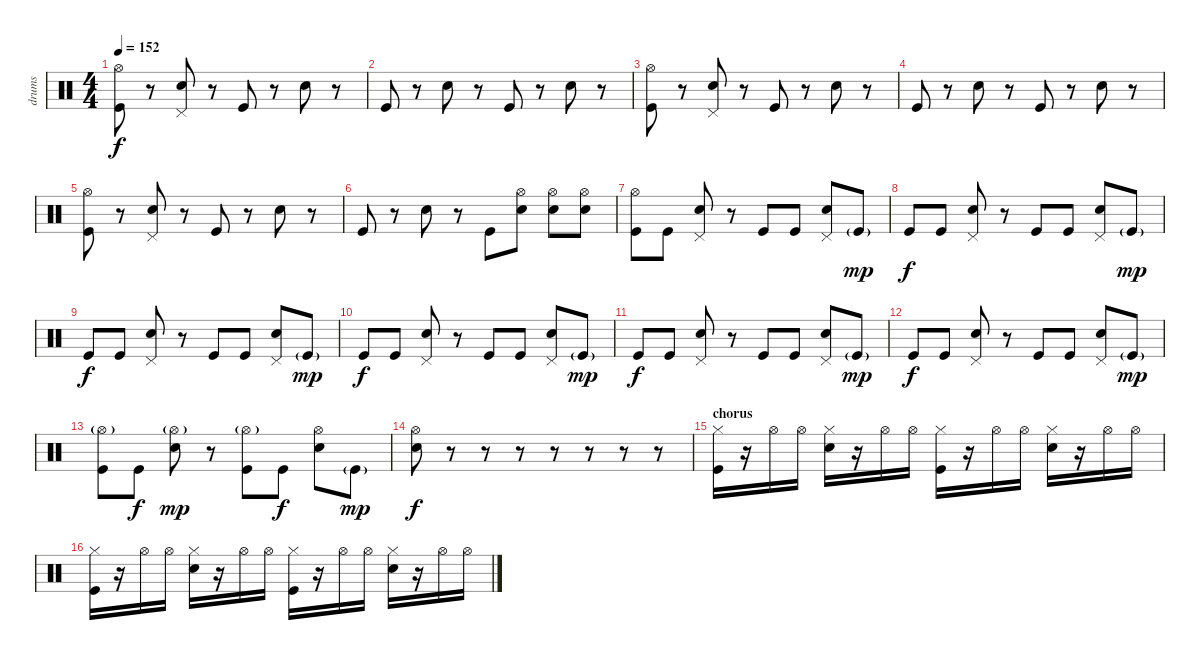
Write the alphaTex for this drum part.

\track ("drums" "drums") {instrument percussion}
\staff {score}
\articulation defaults
\ts (4 4)
\tempo 152
\clef neutral
\ks c
("Hi-Hat (open)" "Kick (hit)").8{dy f} r.8 ("Pedal Hi-Hat (hit)" "Snare (hit) 2").8 r.8 "Kick (hit)".8 r.8 "Snare (hit) 2".8 r.8 |
"Kick (hit)".8 r.8 "Snare (hit) 2".8 r.8 "Kick (hit)".8 r.8 "Snare (hit) 2".8 r.8 |
("Hi-Hat (open)" "Kick (hit)").8 r.8 ("Pedal Hi-Hat (hit)" "Snare (hit) 2").8 r.8 "Kick (hit)".8 r.8 "Snare (hit) 2".8 r.8 |
"Kick (hit)".8 r.8 "Snare (hit) 2".8 r.8 "Kick (hit)".8 r.8 "Snare (hit) 2".8 r.8 |
("Hi-Hat (open)" "Kick (hit)").8 r.8 ("Pedal Hi-Hat (hit)" "Snare (hit) 2").8 r.8 "Kick (hit)".8 r.8 "Snare (hit) 2".8 r.8 |
"Kick (hit)".8 r.8 "Snare (hit) 2".8 r.8 "Kick (hit)".8 ("Hi-Hat (open)" "Snare (hit) 2").8 ("Hi-Hat (open)" "Snare (hit) 2").8 ("Hi-Hat (open)" "Snare (hit) 2").8 |
("Hi-Hat (open)" "Kick (hit)").8 "Kick (hit)".8 ("Pedal Hi-Hat (hit)" "Snare (hit) 2").8 r.8 "Kick (hit)".8 "Kick (hit)".8 ("Pedal Hi-Hat (hit)" "Snare (hit) 2").8 "Kick (hit)"{g}.8{dy mp} |
"Kick (hit)".8{dy f} "Kick (hit)".8 ("Pedal Hi-Hat (hit)" "Snare (hit) 2").8 r.8 "Kick (hit)".8 "Kick (hit)".8 ("Pedal Hi-Hat (hit)" "Snare (hit) 2").8 "Kick (hit)"{g}.8{dy mp} |
"Kick (hit)".8{dy f} "Kick (hit)".8 ("Pedal Hi-Hat (hit)" "Snare (hit) 2").8 r.8 "Kick (hit)".8 "Kick (hit)".8 ("Pedal Hi-Hat (hit)" "Snare (hit) 2").8 "Kick (hit)"{g}.8{dy mp} |
"Kick (hit)".8{dy f} "Kick (hit)".8 ("Pedal Hi-Hat (hit)" "Snare (hit) 2").8 r.8 "Kick (hit)".8 "Kick (hit)".8 ("Pedal Hi-Hat (hit)" "Snare (hit) 2").8 "Kick (hit)"{g}.8{dy mp} |
"Kick (hit)".8{dy f} "Kick (hit)".8 ("Pedal Hi-Hat (hit)" "Snare (hit) 2").8 r.8 "Kick (hit)".8 "Kick (hit)".8 ("Pedal Hi-Hat (hit)" "Snare (hit) 2").8 "Kick (hit)"{g}.8{dy mp} |
"Kick (hit)".8{dy f} "Kick (hit)".8 ("Pedal Hi-Hat (hit)" "Snare (hit) 2").8 r.8 "Kick (hit)".8 "Kick (hit)".8 ("Pedal Hi-Hat (hit)" "Snare (hit) 2").8 "Kick (hit)"{g}.8{dy mp} |
("Hi-Hat (open)"{g} "Kick (hit)").8 "Kick (hit)".8{dy f} ("Hi-Hat (open)"{g} "Snare (hit) 2").8{dy mp} r.8 ("Hi-Hat (open)"{g} "Kick (hit)").8 "Kick (hit)".8{dy f} ("Hi-Hat (open)" "Snare (hit) 2").8 "Kick (hit)"{g}.8{dy mp} |
("Hi-Hat (open)" "Snare (hit) 2").8{dy f} r.8 r.8 r.8 r.8 r.8 r.8 r.8 |
\section ("" "chorus")
("Hi-Hat (closed)" "Kick (hit)").16 r.16 "Hi-Hat (open)".16 "Hi-Hat (open)".16 ("Hi-Hat (closed)" "Snare (hit) 2").16 r.16 "Hi-Hat (open)".16 "Hi-Hat (open)".16 ("Hi-Hat (closed)" "Kick (hit)").16 r.16 "Hi-Hat (open)".16 "Hi-Hat (open)".16 ("Hi-Hat (closed)" "Snare (hit) 2").16 r.16 "Hi-Hat (open)".16 "Hi-Hat (open)".16 |
("Hi-Hat (closed)" "Kick (hit)").16 r.16 "Hi-Hat (open)".16 "Hi-Hat (open)".16 ("Hi-Hat (closed)" "Snare (hit) 2").16 r.16 "Hi-Hat (open)".16 "Hi-Hat (open)".16 ("Hi-Hat (closed)" "Kick (hit)").16 r.16 "Hi-Hat (open)".16 "Hi-Hat (open)".16 ("Hi-Hat (closed)" "Snare (hit) 2").16 r.16 "Hi-Hat (open)".16 "Hi-Hat (open)".16
